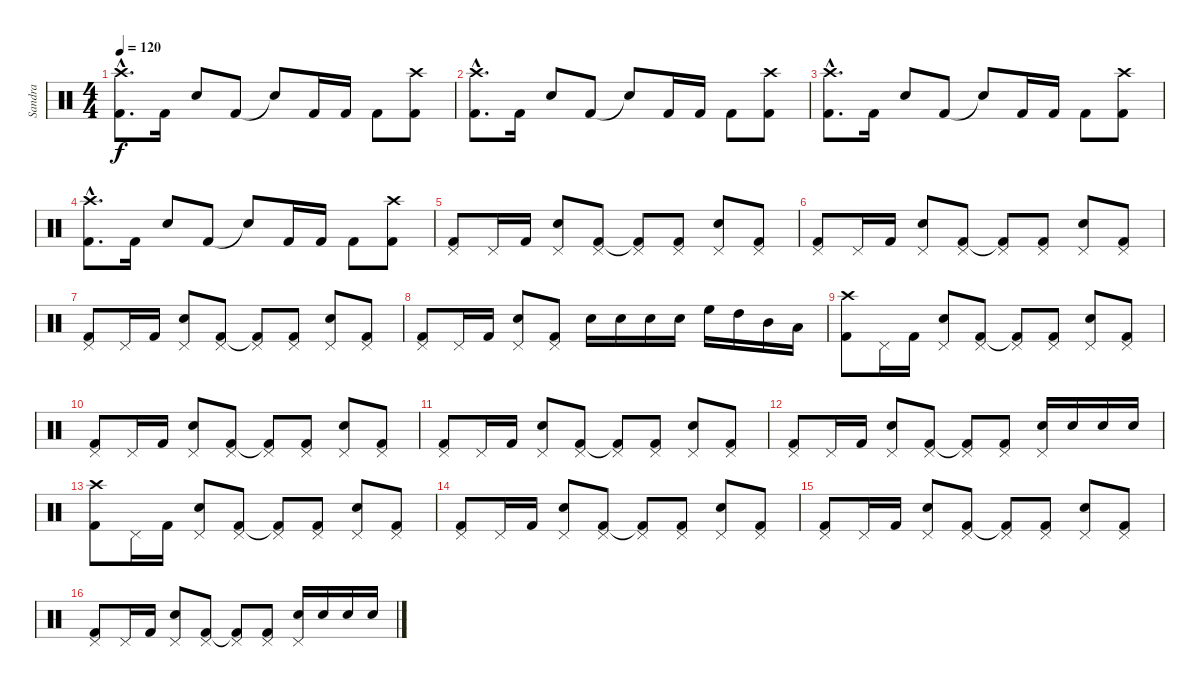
\track ("Sandra" "Sandra") {instrument percussion}
\staff {score}
\articulation defaults
\ts (4 4)
\tempo 120
\clef neutral
\ks c
("Crash high (hit)"{hac} "Kick (hit) 2"{hac}).8{d dy f} "Kick (hit) 2".16 "Snare (hit) 2".8 "Kick (hit) 2".8 "Snare (hit)"{t}.8 "Kick (hit) 2".16 "Kick (hit) 2".16 "Kick (hit) 2".8 ("Crash high (hit)" "Kick (hit) 2").8 |
("Crash high (hit)"{hac} "Kick (hit) 2"{hac}).8{d} "Kick (hit) 2".16 "Snare (hit) 2".8 "Kick (hit) 2".8 "Snare (hit)"{t}.8 "Kick (hit) 2".16 "Kick (hit) 2".16 "Kick (hit) 2".8 ("Crash high (hit)" "Kick (hit) 2").8 |
("Crash high (hit)"{hac} "Kick (hit) 2"{hac}).8{d} "Kick (hit) 2".16 "Snare (hit) 2".8 "Kick (hit) 2".8 "Snare (hit)"{t}.8 "Kick (hit) 2".16 "Kick (hit) 2".16 "Kick (hit) 2".8 ("Crash high (hit)" "Kick (hit) 2").8 |
("Crash high (hit)"{hac} "Kick (hit) 2"{hac}).8{d} "Kick (hit) 2".16 "Snare (hit) 2".8 "Kick (hit) 2".8 "Snare (hit)"{t}.8 "Kick (hit) 2".16 "Kick (hit) 2".16 "Kick (hit) 2".8 ("Crash high (hit)" "Kick (hit) 2").8 |
("Pedal Hi-Hat (hit)" "Kick (hit) 2").8 "Pedal Hi-Hat (hit)".16 "Kick (hit) 2".16 ("Pedal Hi-Hat (hit)" "Snare (hit) 2").8 ("Pedal Hi-Hat (hit)" "Kick (hit) 2").8 ("Pedal Hi-Hat (hit)" "Kick (hit) 2"{t}).8 ("Pedal Hi-Hat (hit)" "Kick (hit) 2").8 ("Pedal Hi-Hat (hit)" "Snare (hit) 2").8 ("Pedal Hi-Hat (hit)" "Kick (hit) 2").8 |
("Pedal Hi-Hat (hit)" "Kick (hit) 2").8 "Pedal Hi-Hat (hit)".16 "Kick (hit) 2".16 ("Pedal Hi-Hat (hit)" "Snare (hit) 2").8 ("Pedal Hi-Hat (hit)" "Kick (hit) 2").8 ("Pedal Hi-Hat (hit)" "Kick (hit) 2"{t}).8 ("Pedal Hi-Hat (hit)" "Kick (hit) 2").8 ("Pedal Hi-Hat (hit)" "Snare (hit) 2").8 ("Pedal Hi-Hat (hit)" "Kick (hit) 2").8 |
("Pedal Hi-Hat (hit)" "Kick (hit) 2").8 "Pedal Hi-Hat (hit)".16 "Kick (hit) 2".16 ("Pedal Hi-Hat (hit)" "Snare (hit) 2").8 ("Pedal Hi-Hat (hit)" "Kick (hit) 2").8 ("Pedal Hi-Hat (hit)" "Kick (hit) 2"{t}).8 ("Pedal Hi-Hat (hit)" "Kick (hit) 2").8 ("Pedal Hi-Hat (hit)" "Snare (hit) 2").8 ("Pedal Hi-Hat (hit)" "Kick (hit) 2").8 |
("Pedal Hi-Hat (hit)" "Kick (hit) 2").8 "Pedal Hi-Hat (hit)".16 "Kick (hit) 2".16 ("Pedal Hi-Hat (hit)" "Snare (hit) 2").8 ("Pedal Hi-Hat (hit)" "Kick (hit) 2").8 "Snare (hit) 2".16 "Snare (hit) 2".16 "Snare (hit) 2".16 "Snare (hit) 2".16 "High Floor Tom (hit)".16 "High Tom (hit)".16 "Mid Tom (hit)".16 "Low Tom (hit)".16 |
("Crash high (hit)" "Kick (hit) 2").8 "Pedal Hi-Hat (hit)".16 "Kick (hit) 2".16 ("Pedal Hi-Hat (hit)" "Snare (hit) 2").8 ("Pedal Hi-Hat (hit)" "Kick (hit) 2").8 ("Pedal Hi-Hat (hit)" "Kick (hit) 2"{t}).8 ("Pedal Hi-Hat (hit)" "Kick (hit) 2").8 ("Pedal Hi-Hat (hit)" "Snare (hit) 2").8 ("Pedal Hi-Hat (hit)" "Kick (hit) 2").8 |
("Pedal Hi-Hat (hit)" "Kick (hit) 2").8 "Pedal Hi-Hat (hit)".16 "Kick (hit) 2".16 ("Pedal Hi-Hat (hit)" "Snare (hit) 2").8 ("Pedal Hi-Hat (hit)" "Kick (hit) 2").8 ("Pedal Hi-Hat (hit)" "Kick (hit) 2"{t}).8 ("Pedal Hi-Hat (hit)" "Kick (hit) 2").8 ("Pedal Hi-Hat (hit)" "Snare (hit) 2").8 ("Pedal Hi-Hat (hit)" "Kick (hit) 2").8 |
("Pedal Hi-Hat (hit)" "Kick (hit) 2").8 "Pedal Hi-Hat (hit)".16 "Kick (hit) 2".16 ("Pedal Hi-Hat (hit)" "Snare (hit) 2").8 ("Pedal Hi-Hat (hit)" "Kick (hit) 2").8 ("Pedal Hi-Hat (hit)" "Kick (hit) 2"{t}).8 ("Pedal Hi-Hat (hit)" "Kick (hit) 2").8 ("Pedal Hi-Hat (hit)" "Snare (hit) 2").8 ("Pedal Hi-Hat (hit)" "Kick (hit) 2").8 |
("Pedal Hi-Hat (hit)" "Kick (hit) 2").8 "Pedal Hi-Hat (hit)".16 "Kick (hit) 2".16 ("Pedal Hi-Hat (hit)" "Snare (hit) 2").8 ("Pedal Hi-Hat (hit)" "Kick (hit) 2").8 ("Pedal Hi-Hat (hit)" "Kick (hit) 2"{t}).8 ("Pedal Hi-Hat (hit)" "Kick (hit) 2").8 ("Pedal Hi-Hat (hit)" "Snare (hit) 2").16 "Snare (hit) 2".16 "Snare (hit) 2".16 "Snare (hit) 2".16 |
("Crash high (hit)" "Kick (hit) 2").8 "Pedal Hi-Hat (hit)".16 "Kick (hit) 2".16 ("Pedal Hi-Hat (hit)" "Snare (hit) 2").8 ("Pedal Hi-Hat (hit)" "Kick (hit) 2").8 ("Pedal Hi-Hat (hit)" "Kick (hit) 2"{t}).8 ("Pedal Hi-Hat (hit)" "Kick (hit) 2").8 ("Pedal Hi-Hat (hit)" "Snare (hit) 2").8 ("Pedal Hi-Hat (hit)" "Kick (hit) 2").8 |
("Pedal Hi-Hat (hit)" "Kick (hit) 2").8 "Pedal Hi-Hat (hit)".16 "Kick (hit) 2".16 ("Pedal Hi-Hat (hit)" "Snare (hit) 2").8 ("Pedal Hi-Hat (hit)" "Kick (hit) 2").8 ("Pedal Hi-Hat (hit)" "Kick (hit) 2"{t}).8 ("Pedal Hi-Hat (hit)" "Kick (hit) 2").8 ("Pedal Hi-Hat (hit)" "Snare (hit) 2").8 ("Pedal Hi-Hat (hit)" "Kick (hit) 2").8 |
("Pedal Hi-Hat (hit)" "Kick (hit) 2").8 "Pedal Hi-Hat (hit)".16 "Kick (hit) 2".16 ("Pedal Hi-Hat (hit)" "Snare (hit) 2").8 ("Pedal Hi-Hat (hit)" "Kick (hit) 2").8 ("Pedal Hi-Hat (hit)" "Kick (hit) 2"{t}).8 ("Pedal Hi-Hat (hit)" "Kick (hit) 2").8 ("Pedal Hi-Hat (hit)" "Snare (hit) 2").8 ("Pedal Hi-Hat (hit)" "Kick (hit) 2").8 |
("Pedal Hi-Hat (hit)" "Kick (hit) 2").8 "Pedal Hi-Hat (hit)".16 "Kick (hit) 2".16 ("Pedal Hi-Hat (hit)" "Snare (hit) 2").8 ("Pedal Hi-Hat (hit)" "Kick (hit) 2").8 ("Pedal Hi-Hat (hit)" "Kick (hit) 2"{t}).8 ("Pedal Hi-Hat (hit)" "Kick (hit) 2").8 ("Pedal Hi-Hat (hit)" "Snare (hit) 2").16 "Snare (hit) 2".16 "Snare (hit) 2".16 "Snare (hit) 2".16
